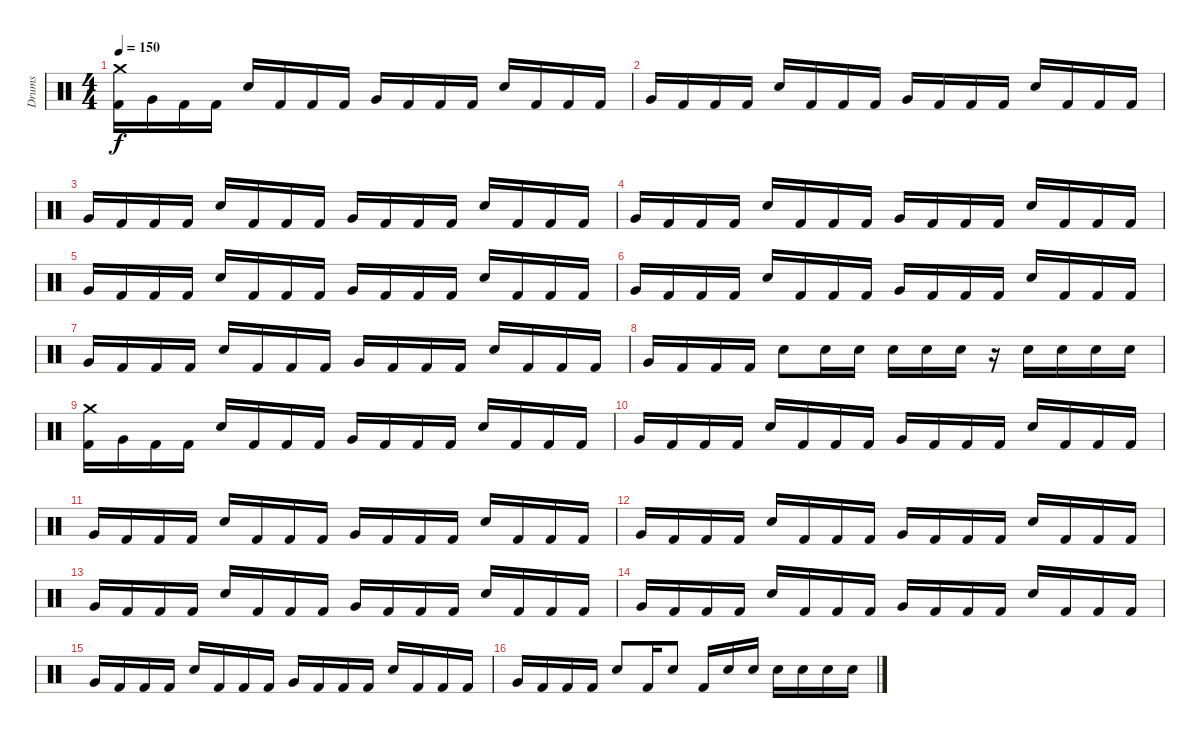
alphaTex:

\track ("Drums" "Drums") {instrument percussion}
\staff {score}
\articulation defaults
\ts (4 4)
\tempo 150
\clef neutral
\ks c
("Crash medium (hit)" "Kick (hit) 2").16{dy f} "Very Low Tom (hit)".16 "Kick (hit) 2".16 "Kick (hit) 2".16 "Electric Snare (hit)".16 "Kick (hit) 2".16 "Kick (hit) 2".16 "Kick (hit) 2".16 "Very Low Tom (hit)".16 "Kick (hit) 2".16 "Kick (hit) 2".16 "Kick (hit) 2".16 "Electric Snare (hit)".16 "Kick (hit) 2".16 "Kick (hit) 2".16 "Kick (hit) 2".16 |
"Very Low Tom (hit)".16 "Kick (hit) 2".16 "Kick (hit) 2".16 "Kick (hit) 2".16 "Electric Snare (hit)".16 "Kick (hit) 2".16 "Kick (hit) 2".16 "Kick (hit) 2".16 "Very Low Tom (hit)".16 "Kick (hit) 2".16 "Kick (hit) 2".16 "Kick (hit) 2".16 "Electric Snare (hit)".16 "Kick (hit) 2".16 "Kick (hit) 2".16 "Kick (hit) 2".16 |
"Very Low Tom (hit)".16 "Kick (hit) 2".16 "Kick (hit) 2".16 "Kick (hit) 2".16 "Electric Snare (hit)".16 "Kick (hit) 2".16 "Kick (hit) 2".16 "Kick (hit) 2".16 "Very Low Tom (hit)".16 "Kick (hit) 2".16 "Kick (hit) 2".16 "Kick (hit) 2".16 "Electric Snare (hit)".16 "Kick (hit) 2".16 "Kick (hit) 2".16 "Kick (hit) 2".16 |
"Very Low Tom (hit)".16 "Kick (hit) 2".16 "Kick (hit) 2".16 "Kick (hit) 2".16 "Electric Snare (hit)".16 "Kick (hit) 2".16 "Kick (hit) 2".16 "Kick (hit) 2".16 "Very Low Tom (hit)".16 "Kick (hit) 2".16 "Kick (hit) 2".16 "Kick (hit) 2".16 "Electric Snare (hit)".16 "Kick (hit) 2".16 "Kick (hit) 2".16 "Kick (hit) 2".16 |
"Very Low Tom (hit)".16 "Kick (hit) 2".16 "Kick (hit) 2".16 "Kick (hit) 2".16 "Electric Snare (hit)".16 "Kick (hit) 2".16 "Kick (hit) 2".16 "Kick (hit) 2".16 "Very Low Tom (hit)".16 "Kick (hit) 2".16 "Kick (hit) 2".16 "Kick (hit) 2".16 "Electric Snare (hit)".16 "Kick (hit) 2".16 "Kick (hit) 2".16 "Kick (hit) 2".16 |
"Very Low Tom (hit)".16 "Kick (hit) 2".16 "Kick (hit) 2".16 "Kick (hit) 2".16 "Electric Snare (hit)".16 "Kick (hit) 2".16 "Kick (hit) 2".16 "Kick (hit) 2".16 "Very Low Tom (hit)".16 "Kick (hit) 2".16 "Kick (hit) 2".16 "Kick (hit) 2".16 "Electric Snare (hit)".16 "Kick (hit) 2".16 "Kick (hit) 2".16 "Kick (hit) 2".16 |
"Very Low Tom (hit)".16 "Kick (hit) 2".16 "Kick (hit) 2".16 "Kick (hit) 2".16 "Electric Snare (hit)".16 "Kick (hit) 2".16 "Kick (hit) 2".16 "Kick (hit) 2".16 "Very Low Tom (hit)".16 "Kick (hit) 2".16 "Kick (hit) 2".16 "Kick (hit) 2".16 "Electric Snare (hit)".16 "Kick (hit) 2".16 "Kick (hit) 2".16 "Kick (hit) 2".16 |
"Very Low Tom (hit)".16 "Kick (hit) 2".16 "Kick (hit) 2".16 "Kick (hit) 2".16 "Electric Snare (hit)".8 "Electric Snare (hit)".16 "Electric Snare (hit)".16 "Electric Snare (hit)".16 "Electric Snare (hit)".16 "Electric Snare (hit)".16 r.16 "Electric Snare (hit)".16 "Electric Snare (hit)".16 "Electric Snare (hit)".16 "Electric Snare (hit)".16 |
("Crash medium (hit)" "Kick (hit) 2").16 "Very Low Tom (hit)".16 "Kick (hit) 2".16 "Kick (hit) 2".16 "Electric Snare (hit)".16 "Kick (hit) 2".16 "Kick (hit) 2".16 "Kick (hit) 2".16 "Very Low Tom (hit)".16 "Kick (hit) 2".16 "Kick (hit) 2".16 "Kick (hit) 2".16 "Electric Snare (hit)".16 "Kick (hit) 2".16 "Kick (hit) 2".16 "Kick (hit) 2".16 |
"Very Low Tom (hit)".16 "Kick (hit) 2".16 "Kick (hit) 2".16 "Kick (hit) 2".16 "Electric Snare (hit)".16 "Kick (hit) 2".16 "Kick (hit) 2".16 "Kick (hit) 2".16 "Very Low Tom (hit)".16 "Kick (hit) 2".16 "Kick (hit) 2".16 "Kick (hit) 2".16 "Electric Snare (hit)".16 "Kick (hit) 2".16 "Kick (hit) 2".16 "Kick (hit) 2".16 |
"Very Low Tom (hit)".16 "Kick (hit) 2".16 "Kick (hit) 2".16 "Kick (hit) 2".16 "Electric Snare (hit)".16 "Kick (hit) 2".16 "Kick (hit) 2".16 "Kick (hit) 2".16 "Very Low Tom (hit)".16 "Kick (hit) 2".16 "Kick (hit) 2".16 "Kick (hit) 2".16 "Electric Snare (hit)".16 "Kick (hit) 2".16 "Kick (hit) 2".16 "Kick (hit) 2".16 |
"Very Low Tom (hit)".16 "Kick (hit) 2".16 "Kick (hit) 2".16 "Kick (hit) 2".16 "Electric Snare (hit)".16 "Kick (hit) 2".16 "Kick (hit) 2".16 "Kick (hit) 2".16 "Very Low Tom (hit)".16 "Kick (hit) 2".16 "Kick (hit) 2".16 "Kick (hit) 2".16 "Electric Snare (hit)".16 "Kick (hit) 2".16 "Kick (hit) 2".16 "Kick (hit) 2".16 |
"Very Low Tom (hit)".16 "Kick (hit) 2".16 "Kick (hit) 2".16 "Kick (hit) 2".16 "Electric Snare (hit)".16 "Kick (hit) 2".16 "Kick (hit) 2".16 "Kick (hit) 2".16 "Very Low Tom (hit)".16 "Kick (hit) 2".16 "Kick (hit) 2".16 "Kick (hit) 2".16 "Electric Snare (hit)".16 "Kick (hit) 2".16 "Kick (hit) 2".16 "Kick (hit) 2".16 |
"Very Low Tom (hit)".16 "Kick (hit) 2".16 "Kick (hit) 2".16 "Kick (hit) 2".16 "Electric Snare (hit)".16 "Kick (hit) 2".16 "Kick (hit) 2".16 "Kick (hit) 2".16 "Very Low Tom (hit)".16 "Kick (hit) 2".16 "Kick (hit) 2".16 "Kick (hit) 2".16 "Electric Snare (hit)".16 "Kick (hit) 2".16 "Kick (hit) 2".16 "Kick (hit) 2".16 |
"Very Low Tom (hit)".16 "Kick (hit) 2".16 "Kick (hit) 2".16 "Kick (hit) 2".16 "Electric Snare (hit)".16 "Kick (hit) 2".16 "Kick (hit) 2".16 "Kick (hit) 2".16 "Very Low Tom (hit)".16 "Kick (hit) 2".16 "Kick (hit) 2".16 "Kick (hit) 2".16 "Electric Snare (hit)".16 "Kick (hit) 2".16 "Kick (hit) 2".16 "Kick (hit) 2".16 |
"Very Low Tom (hit)".16 "Kick (hit) 2".16 "Kick (hit) 2".16 "Kick (hit) 2".16 "Electric Snare (hit)".8 "Kick (hit) 2".16 "Electric Snare (hit)".8 "Kick (hit) 2".16 "Electric Snare (hit)".16 "Electric Snare (hit)".16 "Electric Snare (hit)".16 "Electric Snare (hit)".16 "Electric Snare (hit)".16 "Electric Snare (hit)".16
